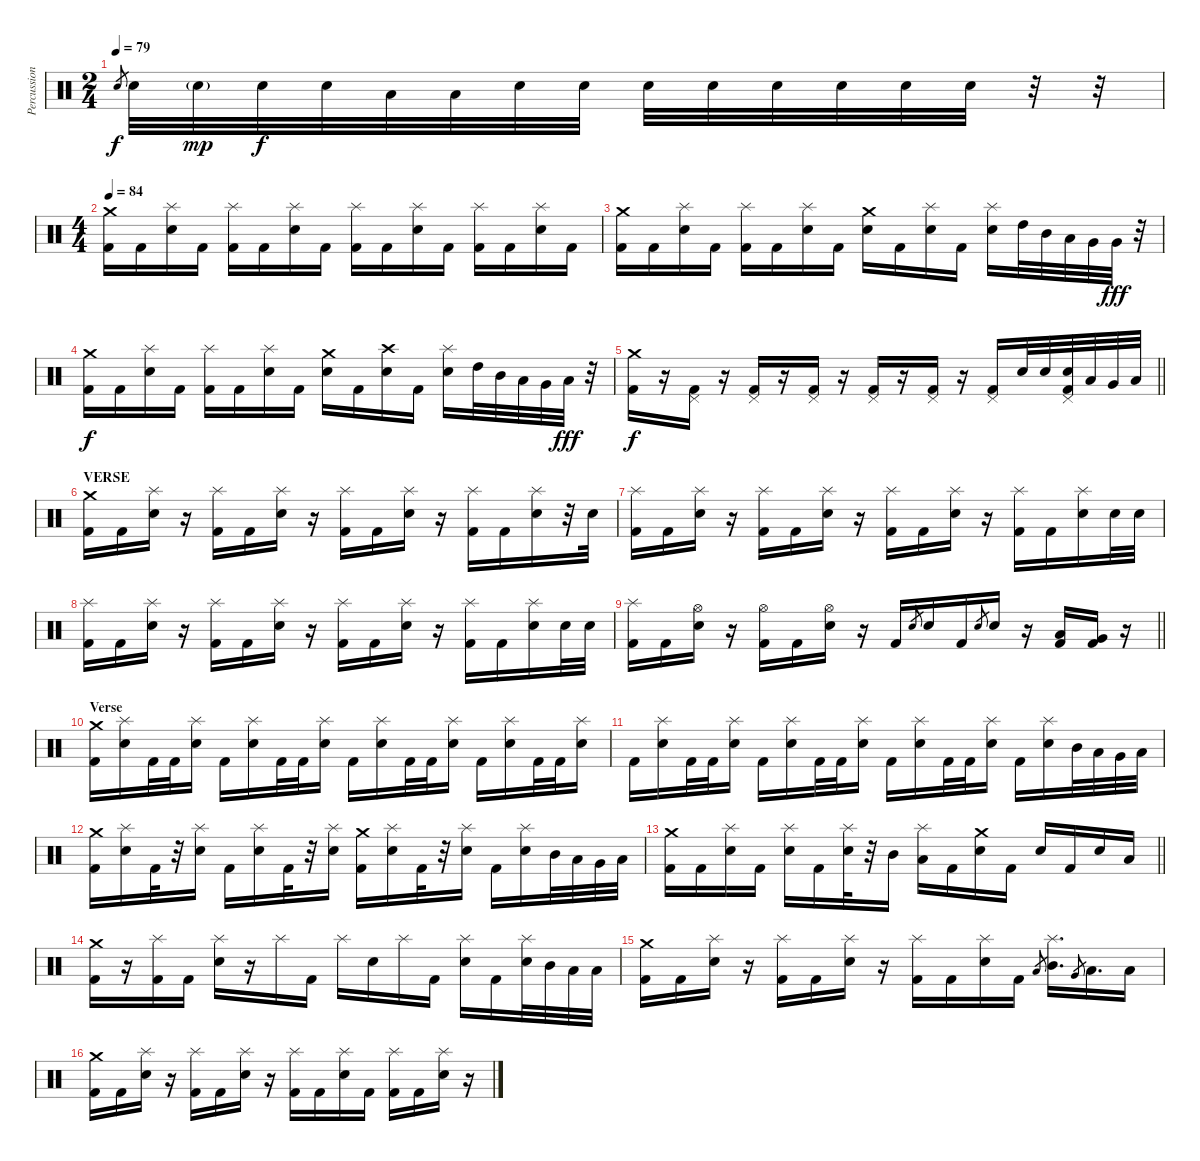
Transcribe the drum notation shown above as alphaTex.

\track ("Percussion" "Percussion") {instrument percussion}
\staff {score}
\articulation defaults
\ts (2 4)
\section ("" "")
\tempo 79
\clef neutral
\ks c "Snare (hit) 2".8{gr dy f} "Snare (hit) 2".32 "Snare (hit) 2"{g}.32{dy mp} "Snare (hit) 2".32{dy f} "Snare (hit) 2".32 "Low Tom (hit)".32 "Low Tom (hit)".32 "Snare (hit) 2".32 "Snare (hit) 2".32 "Snare (hit) 2".32 "Snare (hit) 2".32 "Snare (hit) 2".32 "Snare (hit) 2".32 "Snare (hit) 2".32 "Snare (hit) 2".32
r.32 r.32 |
\ts (4 4)
\tempo 84
("Crash medium (hit)" "Kick (hit) 2").16 "Kick (hit) 2".16 ("Splash (hit)" "Electric Snare (hit)").16 "Kick (hit) 2".16 ("Splash (hit)" "Kick (hit) 2").16 "Kick (hit) 2".16 ("Splash (hit)" "Electric Snare (hit)").16 "Kick (hit) 2".16 ("Splash (hit)" "Kick (hit) 2").16 "Kick (hit) 2".16 ("Splash (hit)" "Electric Snare (hit)").16 "Kick (hit) 2".16 ("Splash (hit)" "Kick (hit) 2").16 "Kick (hit) 2".16 ("Splash (hit)" "Electric Snare (hit)").16 "Kick (hit) 2".16 |
("Crash medium (hit)" "Kick (hit) 2").16 "Kick (hit) 2".16 ("Splash (hit)" "Electric Snare (hit)").16 "Kick (hit) 2".16 ("Splash (hit)" "Kick (hit) 2").16 "Kick (hit) 2".16 ("Splash (hit)" "Electric Snare (hit)").16 "Kick (hit) 2".16 ("Crash medium (hit)" "Electric Snare (hit)").16 "Kick (hit) 2".16 ("Splash (hit)" "Electric Snare (hit)").16 "Kick (hit) 2".16 ("Splash (hit)" "Electric Snare (hit)").16 "High Tom (hit)".32 "Mid Tom (hit)".32 "Low Tom (hit)".32 "Very Low Tom (hit)".32 "Very Low Tom (hit)".32{dy fff} r.32 |
("Crash medium (hit)" "Kick (hit) 2").16{dy f} "Kick (hit) 2".16 ("Splash (hit)" "Electric Snare (hit)").16 "Kick (hit) 2".16 ("Splash (hit)" "Kick (hit) 2").16 "Kick (hit) 2".16 ("Splash (hit)" "Electric Snare (hit)").16 "Kick (hit) 2".16 ("Crash medium (hit)" "Electric Snare (hit)").16 "Kick (hit) 2".16 ("Crash high (hit)" "Electric Snare (hit)").16 "Kick (hit) 2".16 ("Splash (hit)" "Electric Snare (hit)").16 "High Tom (hit)".32 "Mid Tom (hit)".32 "Low Tom (hit)".32 "Very Low Tom (hit)".32 "Low Floor Tom (hit)".32{dy fff} r.32 |
\barLineRight lightlight
("Crash medium (hit)" "Kick (hit) 2").16{dy f} r.16 ("Pedal Hi-Hat (hit)" "Kick (hit) 2").16 r.16 ("Pedal Hi-Hat (hit)" "Kick (hit) 2").16 r.16 ("Pedal Hi-Hat (hit)" "Kick (hit) 2").16 r.16 ("Pedal Hi-Hat (hit)" "Kick (hit) 2").16 r.16 ("Pedal Hi-Hat (hit)" "Kick (hit) 2").16 r.16 ("Pedal Hi-Hat (hit)" "Kick (hit) 2").16 "Snare (hit) 2".32 "Snare (hit) 2".32 ("Pedal Hi-Hat (hit)" "Snare (hit) 2" "Kick (hit) 2").32 "Low Tom (hit)".32 "Very Low Tom (hit)".32 "Low Floor Tom (hit)".32 |
\section ("" "VERSE")
("Crash medium (hit)" "Kick (hit) 2").16 "Kick (hit) 2".16 ("Splash (hit)" "Electric Snare (hit)").16 r.16 ("Splash (hit)" "Kick (hit) 2").16 "Kick (hit) 2".16 ("Splash (hit)" "Electric Snare (hit)").16 r.16 ("Splash (hit)" "Kick (hit) 2").16 "Kick (hit) 2".16 ("Splash (hit)" "Electric Snare (hit)").16 r.16 ("Splash (hit)" "Kick (hit) 2").16 "Kick (hit) 2".16 ("Splash (hit)" "Electric Snare (hit)").16 r.32 "Electric Snare (hit)".32 |
("Splash (hit)" "Kick (hit) 2").16 "Kick (hit) 2".16 ("Splash (hit)" "Electric Snare (hit)").16 r.16 ("Splash (hit)" "Kick (hit) 2").16 "Kick (hit) 2".16 ("Splash (hit)" "Electric Snare (hit)").16 r.16 ("Splash (hit)" "Kick (hit) 2").16 "Kick (hit) 2".16 ("Splash (hit)" "Electric Snare (hit)").16 r.16 ("Splash (hit)" "Kick (hit) 2").16 "Kick (hit) 2".16 ("Splash (hit)" "Electric Snare (hit)").16 "Electric Snare (hit)".32 "Electric Snare (hit)".32 |
("Splash (hit)" "Kick (hit) 2").16 "Kick (hit) 2".16 ("Splash (hit)" "Electric Snare (hit)").16 r.16 ("Splash (hit)" "Kick (hit) 2").16 "Kick (hit) 2".16 ("Splash (hit)" "Electric Snare (hit)").16 r.16 ("Splash (hit)" "Kick (hit) 2").16 "Kick (hit) 2".16 ("Splash (hit)" "Electric Snare (hit)").16 r.16 ("Splash (hit)" "Kick (hit) 2").16 "Kick (hit) 2".16 ("Splash (hit)" "Electric Snare (hit)").16 "Electric Snare (hit)".32 "Electric Snare (hit)".32 |
\barLineRight lightlight
("Splash (hit)" "Kick (hit) 2").16 "Kick (hit) 2".16 ("Hi-Hat (open)" "Electric Snare (hit)").16 r.16 ("Hi-Hat (open)" "Kick (hit) 2").16 "Kick (hit) 2".16 ("Hi-Hat (open)" "Electric Snare (hit)").16 r.16 "Kick (hit) 2".16 "Electric Snare (hit)".8{gr} "Electric Snare (hit)".16 "Kick (hit) 2".16 "Electric Snare (hit)".8{gr} "Electric Snare (hit)".16 r.16 ("Low Tom (hit)" "Kick (hit) 2").16 ("Very Low Tom (hit)" "Kick (hit) 2").16 r.16 |
\section ("" "Verse")
("Crash medium (hit)" "Kick (hit) 2").16 ("Splash (hit)" "Snare (hit) 2").16 "Kick (hit) 2".32 "Kick (hit) 2".32 ("Splash (hit)" "Snare (hit) 2").16 "Kick (hit) 2".16 ("Splash (hit)" "Snare (hit) 2").16 "Kick (hit) 2".32 "Kick (hit) 2".32 ("Splash (hit)" "Snare (hit) 2").16 "Kick (hit) 2".16 ("Splash (hit)" "Snare (hit) 2").16 "Kick (hit) 2".32 "Kick (hit) 2".32 ("Splash (hit)" "Snare (hit) 2").16 "Kick (hit) 2".16 ("Splash (hit)" "Snare (hit) 2").16 "Kick (hit) 2".32 "Kick (hit) 2".32 ("Splash (hit)" "Snare (hit) 2").16 |
"Kick (hit) 2".16 ("Splash (hit)" "Snare (hit) 2").16 "Kick (hit) 2".32 "Kick (hit) 2".32 ("Splash (hit)" "Snare (hit) 2").16 "Kick (hit) 2".16 ("Splash (hit)" "Snare (hit) 2").16 "Kick (hit) 2".32 "Kick (hit) 2".32 ("Splash (hit)" "Snare (hit) 2").16 "Kick (hit) 2".16 ("Splash (hit)" "Snare (hit) 2").16 "Kick (hit) 2".32 "Kick (hit) 2".32 ("Splash (hit)" "Snare (hit) 2").16 "Kick (hit) 2".16 ("Splash (hit)" "Snare (hit) 2").16 "Mid Tom (hit)".32 "Low Tom (hit)".32 "Very Low Tom (hit)".32 "Low Floor Tom (hit)".32 |
("Crash medium (hit)" "Kick (hit) 2").16 ("Splash (hit)" "Snare (hit) 2").16 "Kick (hit) 2".32 r.32 ("Splash (hit)" "Snare (hit) 2").16 "Kick (hit) 2".16 ("Splash (hit)" "Snare (hit) 2").16 "Kick (hit) 2".32 r.32 ("Splash (hit)" "Snare (hit) 2").16 ("Crash medium (hit)" "Kick (hit) 2").16 ("Splash (hit)" "Snare (hit) 2").16 "Kick (hit) 2".32 r.32 ("Splash (hit)" "Snare (hit) 2").16 "Kick (hit) 2".16 ("Splash (hit)" "Snare (hit) 2").16 "Mid Tom (hit)".32 "Low Tom (hit)".32 "Very Low Tom (hit)".32 "Low Floor Tom (hit)".32 |
\barLineRight lightlight
("Crash medium (hit)" "Kick (hit) 2").16 "Kick (hit) 2".16 ("Splash (hit)" "Snare (hit) 2").16 "Kick (hit) 2".16 ("Splash (hit)" "Snare (hit) 2").16 "Kick (hit) 2".16 ("Splash (hit)" "Snare (hit) 2").32 r.32 "Mid Tom (hit)".16 ("Splash (hit)" "Low Tom (hit)").16 "Kick (hit) 2".16 ("Crash medium (hit)" "Snare (hit) 2").16 "Kick (hit) 2".16 "Snare (hit) 2".16 "Kick (hit) 2".16 "Snare (hit) 2".16 "Low Floor Tom (hit)".16 |
\section ("" "")
("Crash medium (hit)" "Kick (hit) 2").16 r.16 ("Splash (hit)" "Kick (hit) 2").16 "Kick (hit) 2".16 ("Splash (hit)" "Electric Snare (hit)").16 r.16 "Splash (hit)".16 "Kick (hit) 2".16 "Splash (hit)".16 "Electric Snare (hit)".16 "Splash (hit)".16 "Kick (hit) 2".16 ("Splash (hit)" "Electric Snare (hit)").16 "Kick (hit) 2".16 ("Splash (hit)" "Electric Snare (hit)").32 "Mid Tom (hit)".32 "Low Tom (hit)".32 "Low Floor Tom (hit)".32 |
("Crash medium (hit)" "Kick (hit) 2").16 "Kick (hit) 2".16 ("Splash (hit)" "Electric Snare (hit)").16 r.16 ("Splash (hit)" "Kick (hit) 2").16 "Kick (hit) 2".16 ("Splash (hit)" "Electric Snare (hit)").16 r.16 ("Splash (hit)" "Kick (hit) 2").16 "Kick (hit) 2".16 ("Splash (hit)" "Electric Snare (hit)").16 "Kick (hit) 2".16 "Low Tom (hit)".8{gr} ("Splash (hit)" "Mid Tom (hit)").16{d} "Very Low Tom (hit)".8{gr} "Low Tom (hit)".16{d} "Low Floor Tom (hit)".16 |
("Crash medium (hit)" "Kick (hit) 2").16 "Kick (hit) 2".16 ("Splash (hit)" "Electric Snare (hit)").16 r.16 ("Splash (hit)" "Kick (hit) 2").16 "Kick (hit) 2".16 ("Splash (hit)" "Electric Snare (hit)").16 r.16 ("Splash (hit)" "Kick (hit) 2").16 "Kick (hit) 2".16 ("Splash (hit)" "Electric Snare (hit)").16 "Kick (hit) 2".16 ("Splash (hit)" "Kick (hit) 2").16 "Kick (hit) 2".16 ("Splash (hit)" "Electric Snare (hit)").16 r.16
